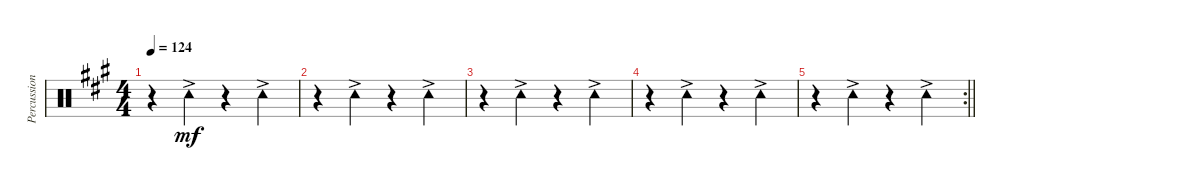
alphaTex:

\track ("Percussion" "Percussion") {instrument percussion}
\staff {score}
\articulation defaults
\ts (4 4)
\tempo 124
\clef neutral
\ks a
r.4{dy mf} "Tambourine (hit)"{ac}.4 r.4 "Tambourine (hit)"{ac}.4 |
r.4 "Tambourine (hit)"{ac}.4 r.4 "Tambourine (hit)"{ac}.4 |
r.4 "Tambourine (hit)"{ac}.4 r.4 "Tambourine (hit)"{ac}.4 |
r.4 "Tambourine (hit)"{ac}.4 r.4 "Tambourine (hit)"{ac}.4 |
\rc 2
\barLineRight lightlight
r.4 "Tambourine (hit)"{ac}.4 r.4 "Tambourine (hit)"{ac}.4
